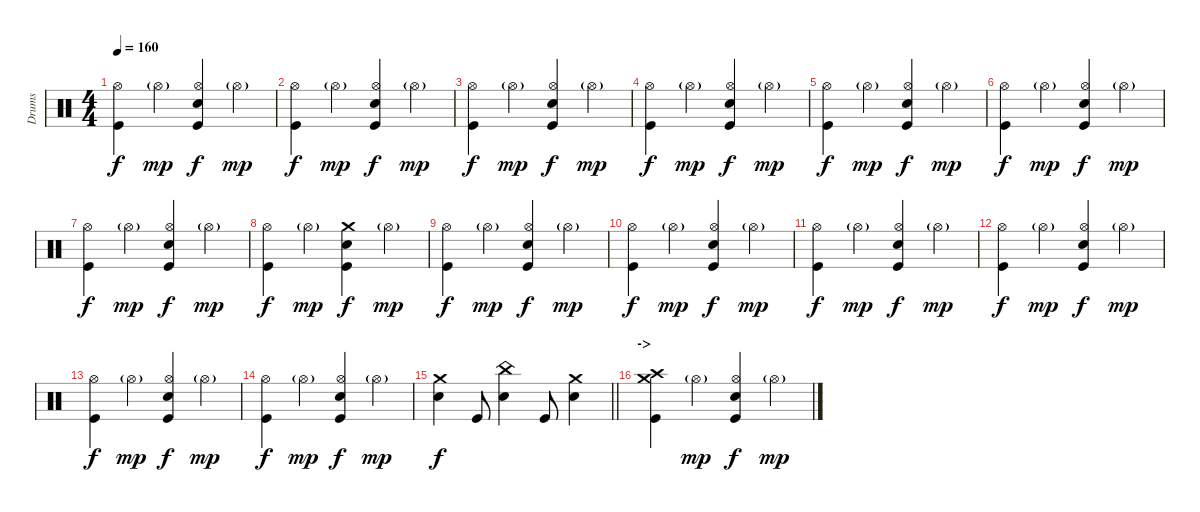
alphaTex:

\track ("Drums" "Drums") {instrument percussion}
\staff {score}
\articulation defaults
\ts (4 4)
\tempo 160
\clef neutral
\ks c
("Kick (hit)" "Hi-Hat (open)").4{dy f} "Hi-Hat (open)"{g}.4{dy mp} ("Kick (hit)" "Electric Snare (hit)" "Hi-Hat (open)").4{dy f} "Hi-Hat (open)"{g}.4{dy mp} |
("Kick (hit)" "Hi-Hat (open)").4{dy f} "Hi-Hat (open)"{g}.4{dy mp} ("Kick (hit)" "Electric Snare (hit)" "Hi-Hat (open)").4{dy f} "Hi-Hat (open)"{g}.4{dy mp} |
("Kick (hit)" "Hi-Hat (open)").4{dy f} "Hi-Hat (open)"{g}.4{dy mp} ("Kick (hit)" "Electric Snare (hit)" "Hi-Hat (open)").4{dy f} "Hi-Hat (open)"{g}.4{dy mp} |
("Kick (hit)" "Hi-Hat (open)").4{dy f} "Hi-Hat (open)"{g}.4{dy mp} ("Kick (hit)" "Electric Snare (hit)" "Hi-Hat (open)").4{dy f} "Hi-Hat (open)"{g}.4{dy mp} |
("Kick (hit)" "Hi-Hat (open)").4{dy f} "Hi-Hat (open)"{g}.4{dy mp} ("Kick (hit)" "Electric Snare (hit)" "Hi-Hat (open)").4{dy f} "Hi-Hat (open)"{g}.4{dy mp} |
("Kick (hit)" "Hi-Hat (open)").4{dy f} "Hi-Hat (open)"{g}.4{dy mp} ("Kick (hit)" "Electric Snare (hit)" "Hi-Hat (open)").4{dy f} "Hi-Hat (open)"{g}.4{dy mp} |
("Kick (hit)" "Hi-Hat (open)").4{dy f} "Hi-Hat (open)"{g}.4{dy mp} ("Kick (hit)" "Electric Snare (hit)" "Hi-Hat (open)").4{dy f} "Hi-Hat (open)"{g}.4{dy mp} |
("Kick (hit)" "Hi-Hat (open)").4{dy f} "Hi-Hat (open)"{g}.4{dy mp} ("Kick (hit)" "Electric Snare (hit)" "Crash medium (hit)").4{dy f} "Hi-Hat (open)"{g}.4{dy mp} |
("Kick (hit)" "Hi-Hat (open)").4{dy f} "Hi-Hat (open)"{g}.4{dy mp} ("Kick (hit)" "Electric Snare (hit)" "Hi-Hat (open)").4{dy f} "Hi-Hat (open)"{g}.4{dy mp} |
("Kick (hit)" "Hi-Hat (open)").4{dy f} "Hi-Hat (open)"{g}.4{dy mp} ("Kick (hit)" "Electric Snare (hit)" "Hi-Hat (open)").4{dy f} "Hi-Hat (open)"{g}.4{dy mp} |
("Kick (hit)" "Hi-Hat (open)").4{dy f} "Hi-Hat (open)"{g}.4{dy mp} ("Kick (hit)" "Electric Snare (hit)" "Hi-Hat (open)").4{dy f} "Hi-Hat (open)"{g}.4{dy mp} |
("Kick (hit)" "Hi-Hat (open)").4{dy f} "Hi-Hat (open)"{g}.4{dy mp} ("Kick (hit)" "Electric Snare (hit)" "Hi-Hat (open)").4{dy f} "Hi-Hat (open)"{g}.4{dy mp} |
("Kick (hit)" "Hi-Hat (open)").4{dy f} "Hi-Hat (open)"{g}.4{dy mp} ("Kick (hit)" "Electric Snare (hit)" "Hi-Hat (open)").4{dy f} "Hi-Hat (open)"{g}.4{dy mp} |
("Kick (hit)" "Hi-Hat (open)").4{dy f} "Hi-Hat (open)"{g}.4{dy mp} ("Kick (hit)" "Electric Snare (hit)" "Hi-Hat (open)").4{dy f} "Hi-Hat (open)"{g}.4{dy mp} |
\barLineRight lightlight
("Electric Snare (hit)" "Crash medium (hit)").4{dy f} "Kick (hit)".8 ("Electric Snare (hit)" "China (hit)").4 "Kick (hit)".8 ("Electric Snare (hit)" "Crash medium (hit)").4 |
\section ("" "->")
("Kick (hit)" "Crash high (hit)" "Crash medium (hit)").4 "Hi-Hat (open)"{g}.4{dy mp} ("Kick (hit)" "Electric Snare (hit)" "Hi-Hat (open)").4{dy f} "Hi-Hat (open)"{g}.4{dy mp}
